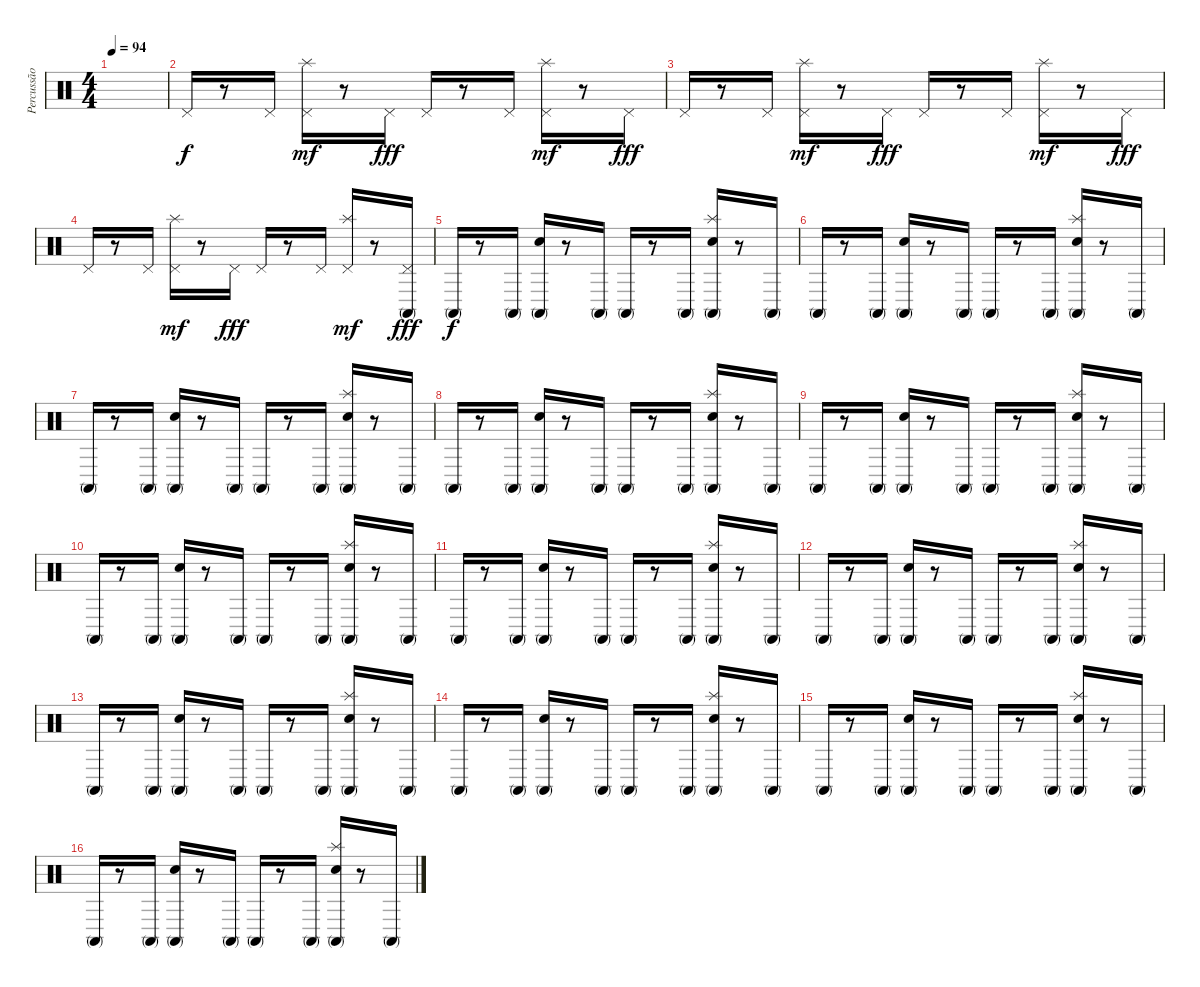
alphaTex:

\track ("Percussão" "Percussão") {instrument percussion}
\staff {score}
\articulation defaults
\ts (4 4)
\tempo 94
\clef neutral
\ks c
|
"Pedal Hi-Hat (hit)".16 r.8 "Pedal Hi-Hat (hit)".16 ("Pedal Hi-Hat (hit)" "Splash (hit)").16{dy mf} r.8 "Pedal Hi-Hat (hit)".16{dy fff} "Pedal Hi-Hat (hit)".16 r.8 "Pedal Hi-Hat (hit)".16 ("Pedal Hi-Hat (hit)" "Splash (hit)").16{dy mf} r.8 "Pedal Hi-Hat (hit)".16{dy fff} |
"Pedal Hi-Hat (hit)".16 r.8 "Pedal Hi-Hat (hit)".16 ("Pedal Hi-Hat (hit)" "Splash (hit)").16{dy mf} r.8 "Pedal Hi-Hat (hit)".16{dy fff} "Pedal Hi-Hat (hit)".16 r.8 "Pedal Hi-Hat (hit)".16 ("Pedal Hi-Hat (hit)" "Splash (hit)").16{dy mf} r.8 "Pedal Hi-Hat (hit)".16{dy fff} |
"Pedal Hi-Hat (hit)".16 r.8 "Pedal Hi-Hat (hit)".16 ("Pedal Hi-Hat (hit)" "Splash (hit)").16{dy mf} r.8 "Pedal Hi-Hat (hit)".16{dy fff} "Pedal Hi-Hat (hit)".16 r.8 "Pedal Hi-Hat (hit)".16 ("Pedal Hi-Hat (hit)" "Splash (hit)").16{dy mf} r.8 ("Pedal Hi-Hat (hit)" "Conga high (mute)").16{dy fff} |
"Conga high (mute)".16{dy f} r.8 "Conga high (mute)".16 ("Conga high (mute)" "Hand Clap (hit)").16 r.8 "Conga high (mute)".16 "Conga high (mute)".16 r.8 "Conga high (mute)".16 ("Conga high (mute)" "Splash (hit)" "Hand Clap (hit)").16 r.8 "Conga high (mute)".16 |
"Conga high (mute)".16 r.8 "Conga high (mute)".16 ("Conga high (mute)" "Hand Clap (hit)").16 r.8 "Conga high (mute)".16 "Conga high (mute)".16 r.8 "Conga high (mute)".16 ("Conga high (mute)" "Splash (hit)" "Hand Clap (hit)").16 r.8 "Conga high (mute)".16 |
"Conga high (mute)".16 r.8 "Conga high (mute)".16 ("Conga high (mute)" "Hand Clap (hit)").16 r.8 "Conga high (mute)".16 "Conga high (mute)".16 r.8 "Conga high (mute)".16 ("Conga high (mute)" "Splash (hit)" "Hand Clap (hit)").16 r.8 "Conga high (mute)".16 |
"Conga high (mute)".16 r.8 "Conga high (mute)".16 ("Conga high (mute)" "Hand Clap (hit)").16 r.8 "Conga high (mute)".16 "Conga high (mute)".16 r.8 "Conga high (mute)".16 ("Conga high (mute)" "Splash (hit)" "Hand Clap (hit)").16 r.8 "Conga high (mute)".16 |
"Conga high (mute)".16 r.8 "Conga high (mute)".16 ("Conga high (mute)" "Hand Clap (hit)").16 r.8 "Conga high (mute)".16 "Conga high (mute)".16 r.8 "Conga high (mute)".16 ("Conga high (mute)" "Splash (hit)" "Hand Clap (hit)").16 r.8 "Conga high (mute)".16 |
"Conga high (mute)".16 r.8 "Conga high (mute)".16 ("Conga high (mute)" "Hand Clap (hit)").16 r.8 "Conga high (mute)".16 "Conga high (mute)".16 r.8 "Conga high (mute)".16 ("Conga high (mute)" "Splash (hit)" "Hand Clap (hit)").16 r.8 "Conga high (mute)".16 |
"Conga high (mute)".16 r.8 "Conga high (mute)".16 ("Conga high (mute)" "Hand Clap (hit)").16 r.8 "Conga high (mute)".16 "Conga high (mute)".16 r.8 "Conga high (mute)".16 ("Conga high (mute)" "Splash (hit)" "Hand Clap (hit)").16 r.8 "Conga high (mute)".16 |
"Conga high (mute)".16 r.8 "Conga high (mute)".16 ("Conga high (mute)" "Hand Clap (hit)").16 r.8 "Conga high (mute)".16 "Conga high (mute)".16 r.8 "Conga high (mute)".16 ("Conga high (mute)" "Splash (hit)" "Hand Clap (hit)").16 r.8 "Conga high (mute)".16 |
"Conga high (mute)".16 r.8 "Conga high (mute)".16 ("Conga high (mute)" "Hand Clap (hit)").16 r.8 "Conga high (mute)".16 "Conga high (mute)".16 r.8 "Conga high (mute)".16 ("Conga high (mute)" "Splash (hit)" "Hand Clap (hit)").16 r.8 "Conga high (mute)".16 |
"Conga high (mute)".16 r.8 "Conga high (mute)".16 ("Conga high (mute)" "Hand Clap (hit)").16 r.8 "Conga high (mute)".16 "Conga high (mute)".16 r.8 "Conga high (mute)".16 ("Conga high (mute)" "Splash (hit)" "Hand Clap (hit)").16 r.8 "Conga high (mute)".16 |
"Conga high (mute)".16 r.8 "Conga high (mute)".16 ("Conga high (mute)" "Hand Clap (hit)").16 r.8 "Conga high (mute)".16 "Conga high (mute)".16 r.8 "Conga high (mute)".16 ("Conga high (mute)" "Splash (hit)" "Hand Clap (hit)").16 r.8 "Conga high (mute)".16 |
"Conga high (mute)".16 r.8 "Conga high (mute)".16 ("Conga high (mute)" "Hand Clap (hit)").16 r.8 "Conga high (mute)".16 "Conga high (mute)".16 r.8 "Conga high (mute)".16 ("Conga high (mute)" "Splash (hit)" "Hand Clap (hit)").16 r.8 "Conga high (mute)".16
